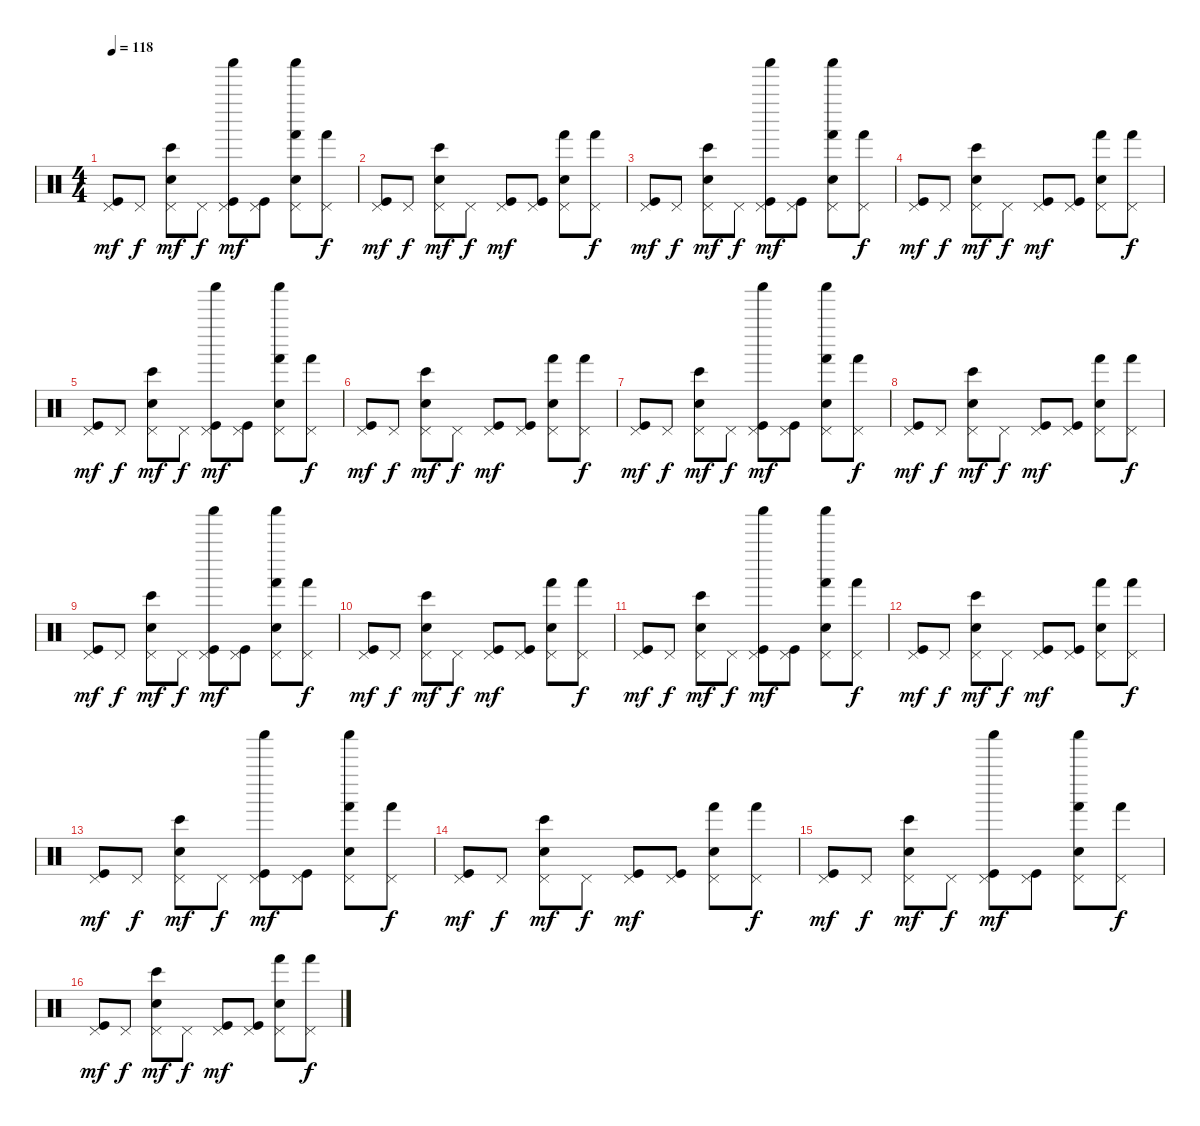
\track "" {instrument percussion}
\staff {score}
\articulation defaults
\ts (4 4)
\tempo 118
\clef neutral
\ks c
("Pedal Hi-Hat (hit)" "Kick (hit)").8{dy mf} "Pedal Hi-Hat (hit)".8{dy f} ("Pedal Hi-Hat (hit)" "Snare (hit) 2" "Bongo High (hit)").8{dy mf} "Pedal Hi-Hat (hit)".8{dy f} ("Pedal Hi-Hat (hit)" "Kick (hit)" "Shaker (hit)").8{dy mf} ("Pedal Hi-Hat (hit)" "Kick (hit)").8 ("Pedal Hi-Hat (hit)" "Snare (hit) 2" "Hand (hit)" "Shaker (hit)").8 ("Pedal Hi-Hat (hit)" "Hand (hit)").8{dy f} |
("Pedal Hi-Hat (hit)" "Kick (hit)").8{dy mf} "Pedal Hi-Hat (hit)".8{dy f} ("Pedal Hi-Hat (hit)" "Snare (hit) 2" "Bongo High (hit)").8{dy mf} "Pedal Hi-Hat (hit)".8{dy f} ("Pedal Hi-Hat (hit)" "Kick (hit)").8{dy mf} ("Pedal Hi-Hat (hit)" "Kick (hit)").8 ("Pedal Hi-Hat (hit)" "Snare (hit) 2" "Hand (hit)").8 ("Pedal Hi-Hat (hit)" "Hand (hit)").8{dy f} |
("Pedal Hi-Hat (hit)" "Kick (hit)").8{dy mf} "Pedal Hi-Hat (hit)".8{dy f} ("Pedal Hi-Hat (hit)" "Snare (hit) 2" "Bongo High (hit)").8{dy mf} "Pedal Hi-Hat (hit)".8{dy f} ("Pedal Hi-Hat (hit)" "Kick (hit)" "Shaker (hit)").8{dy mf} ("Pedal Hi-Hat (hit)" "Kick (hit)").8 ("Pedal Hi-Hat (hit)" "Snare (hit) 2" "Hand (hit)" "Shaker (hit)").8 ("Pedal Hi-Hat (hit)" "Hand (hit)").8{dy f} |
("Pedal Hi-Hat (hit)" "Kick (hit)").8{dy mf} "Pedal Hi-Hat (hit)".8{dy f} ("Pedal Hi-Hat (hit)" "Snare (hit) 2" "Bongo High (hit)").8{dy mf} "Pedal Hi-Hat (hit)".8{dy f} ("Pedal Hi-Hat (hit)" "Kick (hit)").8{dy mf} ("Pedal Hi-Hat (hit)" "Kick (hit)").8 ("Pedal Hi-Hat (hit)" "Snare (hit) 2" "Hand (hit)").8 ("Pedal Hi-Hat (hit)" "Hand (hit)").8{dy f} |
("Pedal Hi-Hat (hit)" "Kick (hit)").8{dy mf} "Pedal Hi-Hat (hit)".8{dy f} ("Pedal Hi-Hat (hit)" "Snare (hit) 2" "Bongo High (hit)").8{dy mf} "Pedal Hi-Hat (hit)".8{dy f} ("Pedal Hi-Hat (hit)" "Kick (hit)" "Shaker (hit)").8{dy mf} ("Pedal Hi-Hat (hit)" "Kick (hit)").8 ("Pedal Hi-Hat (hit)" "Snare (hit) 2" "Hand (hit)" "Shaker (hit)").8 ("Pedal Hi-Hat (hit)" "Hand (hit)").8{dy f} |
("Pedal Hi-Hat (hit)" "Kick (hit)").8{dy mf} "Pedal Hi-Hat (hit)".8{dy f} ("Pedal Hi-Hat (hit)" "Snare (hit) 2" "Bongo High (hit)").8{dy mf} "Pedal Hi-Hat (hit)".8{dy f} ("Pedal Hi-Hat (hit)" "Kick (hit)").8{dy mf} ("Pedal Hi-Hat (hit)" "Kick (hit)").8 ("Pedal Hi-Hat (hit)" "Snare (hit) 2" "Hand (hit)").8 ("Pedal Hi-Hat (hit)" "Hand (hit)").8{dy f} |
("Pedal Hi-Hat (hit)" "Kick (hit)").8{dy mf} "Pedal Hi-Hat (hit)".8{dy f} ("Pedal Hi-Hat (hit)" "Snare (hit) 2" "Bongo High (hit)").8{dy mf} "Pedal Hi-Hat (hit)".8{dy f} ("Pedal Hi-Hat (hit)" "Kick (hit)" "Shaker (hit)").8{dy mf} ("Pedal Hi-Hat (hit)" "Kick (hit)").8 ("Pedal Hi-Hat (hit)" "Snare (hit) 2" "Hand (hit)" "Shaker (hit)").8 ("Pedal Hi-Hat (hit)" "Hand (hit)").8{dy f} |
("Pedal Hi-Hat (hit)" "Kick (hit)").8{dy mf} "Pedal Hi-Hat (hit)".8{dy f} ("Pedal Hi-Hat (hit)" "Snare (hit) 2" "Bongo High (hit)").8{dy mf} "Pedal Hi-Hat (hit)".8{dy f} ("Pedal Hi-Hat (hit)" "Kick (hit)").8{dy mf} ("Pedal Hi-Hat (hit)" "Kick (hit)").8 ("Pedal Hi-Hat (hit)" "Snare (hit) 2" "Hand (hit)").8 ("Pedal Hi-Hat (hit)" "Hand (hit)").8{dy f} |
("Pedal Hi-Hat (hit)" "Kick (hit)").8{dy mf} "Pedal Hi-Hat (hit)".8{dy f} ("Pedal Hi-Hat (hit)" "Snare (hit) 2" "Bongo High (hit)").8{dy mf} "Pedal Hi-Hat (hit)".8{dy f} ("Pedal Hi-Hat (hit)" "Kick (hit)" "Shaker (hit)").8{dy mf} ("Pedal Hi-Hat (hit)" "Kick (hit)").8 ("Pedal Hi-Hat (hit)" "Snare (hit) 2" "Hand (hit)" "Shaker (hit)").8 ("Pedal Hi-Hat (hit)" "Hand (hit)").8{dy f} |
("Pedal Hi-Hat (hit)" "Kick (hit)").8{dy mf} "Pedal Hi-Hat (hit)".8{dy f} ("Pedal Hi-Hat (hit)" "Snare (hit) 2" "Bongo High (hit)").8{dy mf} "Pedal Hi-Hat (hit)".8{dy f} ("Pedal Hi-Hat (hit)" "Kick (hit)").8{dy mf} ("Pedal Hi-Hat (hit)" "Kick (hit)").8 ("Pedal Hi-Hat (hit)" "Snare (hit) 2" "Hand (hit)").8 ("Pedal Hi-Hat (hit)" "Hand (hit)").8{dy f} |
("Pedal Hi-Hat (hit)" "Kick (hit)").8{dy mf} "Pedal Hi-Hat (hit)".8{dy f} ("Pedal Hi-Hat (hit)" "Snare (hit) 2" "Bongo High (hit)").8{dy mf} "Pedal Hi-Hat (hit)".8{dy f} ("Pedal Hi-Hat (hit)" "Kick (hit)" "Shaker (hit)").8{dy mf} ("Pedal Hi-Hat (hit)" "Kick (hit)").8 ("Pedal Hi-Hat (hit)" "Snare (hit) 2" "Hand (hit)" "Shaker (hit)").8 ("Pedal Hi-Hat (hit)" "Hand (hit)").8{dy f} |
("Pedal Hi-Hat (hit)" "Kick (hit)").8{dy mf} "Pedal Hi-Hat (hit)".8{dy f} ("Pedal Hi-Hat (hit)" "Snare (hit) 2" "Bongo High (hit)").8{dy mf} "Pedal Hi-Hat (hit)".8{dy f} ("Pedal Hi-Hat (hit)" "Kick (hit)").8{dy mf} ("Pedal Hi-Hat (hit)" "Kick (hit)").8 ("Pedal Hi-Hat (hit)" "Snare (hit) 2" "Hand (hit)").8 ("Pedal Hi-Hat (hit)" "Hand (hit)").8{dy f} |
("Pedal Hi-Hat (hit)" "Kick (hit)").8{dy mf} "Pedal Hi-Hat (hit)".8{dy f} ("Pedal Hi-Hat (hit)" "Snare (hit) 2" "Bongo High (hit)").8{dy mf} "Pedal Hi-Hat (hit)".8{dy f} ("Pedal Hi-Hat (hit)" "Kick (hit)" "Shaker (hit)").8{dy mf} ("Pedal Hi-Hat (hit)" "Kick (hit)").8 ("Pedal Hi-Hat (hit)" "Snare (hit) 2" "Hand (hit)" "Shaker (hit)").8 ("Pedal Hi-Hat (hit)" "Hand (hit)").8{dy f} |
("Pedal Hi-Hat (hit)" "Kick (hit)").8{dy mf} "Pedal Hi-Hat (hit)".8{dy f} ("Pedal Hi-Hat (hit)" "Snare (hit) 2" "Bongo High (hit)").8{dy mf} "Pedal Hi-Hat (hit)".8{dy f} ("Pedal Hi-Hat (hit)" "Kick (hit)").8{dy mf} ("Pedal Hi-Hat (hit)" "Kick (hit)").8 ("Pedal Hi-Hat (hit)" "Snare (hit) 2" "Hand (hit)").8 ("Pedal Hi-Hat (hit)" "Hand (hit)").8{dy f} |
("Pedal Hi-Hat (hit)" "Kick (hit)").8{dy mf} "Pedal Hi-Hat (hit)".8{dy f} ("Pedal Hi-Hat (hit)" "Snare (hit) 2" "Bongo High (hit)").8{dy mf} "Pedal Hi-Hat (hit)".8{dy f} ("Pedal Hi-Hat (hit)" "Kick (hit)" "Shaker (hit)").8{dy mf} ("Pedal Hi-Hat (hit)" "Kick (hit)").8 ("Pedal Hi-Hat (hit)" "Snare (hit) 2" "Hand (hit)" "Shaker (hit)").8 ("Pedal Hi-Hat (hit)" "Hand (hit)").8{dy f} |
("Pedal Hi-Hat (hit)" "Kick (hit)").8{dy mf} "Pedal Hi-Hat (hit)".8{dy f} ("Pedal Hi-Hat (hit)" "Snare (hit) 2" "Bongo High (hit)").8{dy mf} "Pedal Hi-Hat (hit)".8{dy f} ("Pedal Hi-Hat (hit)" "Kick (hit)").8{dy mf} ("Pedal Hi-Hat (hit)" "Kick (hit)").8 ("Pedal Hi-Hat (hit)" "Snare (hit) 2" "Hand (hit)").8 ("Pedal Hi-Hat (hit)" "Hand (hit)").8{dy f}
